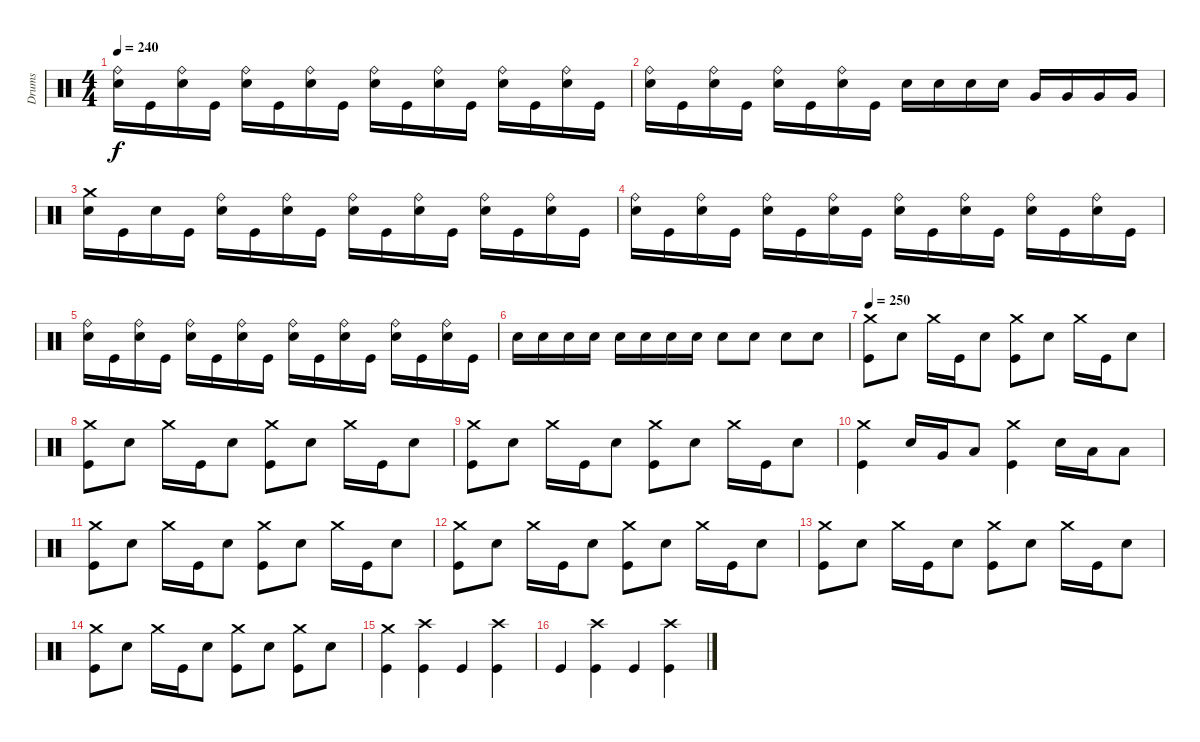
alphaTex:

\track ("Drums" "Drums") {instrument percussion}
\staff {score}
\articulation defaults
\ts (4 4)
\tempo 240
\clef neutral
\ks c
("Ride (bell)" "Electric Snare (hit)").16{dy f} "Kick (hit)".16 ("Ride (bell)" "Electric Snare (hit)").16 "Kick (hit)".16 ("Ride (bell)" "Electric Snare (hit)").16 "Kick (hit)".16 ("Ride (bell)" "Electric Snare (hit)").16 "Kick (hit)".16 ("Ride (bell)" "Electric Snare (hit)").16 "Kick (hit)".16 ("Ride (bell)" "Electric Snare (hit)").16 "Kick (hit)".16 ("Ride (bell)" "Electric Snare (hit)").16 "Kick (hit)".16 ("Ride (bell)" "Electric Snare (hit)").16 "Kick (hit)".16 |
("Ride (bell)" "Electric Snare (hit)").16 "Kick (hit)".16 ("Ride (bell)" "Electric Snare (hit)").16 "Kick (hit)".16 ("Ride (bell)" "Electric Snare (hit)").16 "Kick (hit)".16 ("Ride (bell)" "Electric Snare (hit)").16 "Kick (hit)".16 "Electric Snare (hit)".16 "Electric Snare (hit)".16 "Electric Snare (hit)".16 "Electric Snare (hit)".16 "Very Low Tom (hit)".16 "Very Low Tom (hit)".16 "Very Low Tom (hit)".16 "Very Low Tom (hit)".16 |
("Crash medium (hit)" "Electric Snare (hit)").16 "Kick (hit)".16 "Electric Snare (hit)".16 "Kick (hit)".16 ("Ride (bell)" "Electric Snare (hit)").16 "Kick (hit)".16 ("Ride (bell)" "Electric Snare (hit)").16 "Kick (hit)".16 ("Ride (bell)" "Electric Snare (hit)").16 "Kick (hit)".16 ("Ride (bell)" "Electric Snare (hit)").16 "Kick (hit)".16 ("Ride (bell)" "Electric Snare (hit)").16 "Kick (hit)".16 ("Ride (bell)" "Electric Snare (hit)").16 "Kick (hit)".16 |
("Ride (bell)" "Electric Snare (hit)").16 "Kick (hit)".16 ("Ride (bell)" "Electric Snare (hit)").16 "Kick (hit)".16 ("Ride (bell)" "Electric Snare (hit)").16 "Kick (hit)".16 ("Ride (bell)" "Electric Snare (hit)").16 "Kick (hit)".16 ("Ride (bell)" "Electric Snare (hit)").16 "Kick (hit)".16 ("Ride (bell)" "Electric Snare (hit)").16 "Kick (hit)".16 ("Ride (bell)" "Electric Snare (hit)").16 "Kick (hit)".16 ("Ride (bell)" "Electric Snare (hit)").16 "Kick (hit)".16 |
("Ride (bell)" "Electric Snare (hit)").16 "Kick (hit)".16 ("Ride (bell)" "Electric Snare (hit)").16 "Kick (hit)".16 ("Ride (bell)" "Electric Snare (hit)").16 "Kick (hit)".16 ("Ride (bell)" "Electric Snare (hit)").16 "Kick (hit)".16 ("Ride (bell)" "Electric Snare (hit)").16 "Kick (hit)".16 ("Ride (bell)" "Electric Snare (hit)").16 "Kick (hit)".16 ("Ride (bell)" "Electric Snare (hit)").16 "Kick (hit)".16 ("Ride (bell)" "Electric Snare (hit)").16 "Kick (hit)".16 |
"Electric Snare (hit)".16 "Electric Snare (hit)".16 "Electric Snare (hit)".16 "Electric Snare (hit)".16 "Electric Snare (hit)".16 "Electric Snare (hit)".16 "Electric Snare (hit)".16 "Electric Snare (hit)".16 "Electric Snare (hit)".8 "Electric Snare (hit)".8 "Electric Snare (hit)".8 "Electric Snare (hit)".8 |
\tempo 250
("Crash medium (hit)" "Kick (hit)").8 "Electric Snare (hit)".8 "Crash medium (hit)".16 "Kick (hit)".16 "Electric Snare (hit)".8 ("Crash medium (hit)" "Kick (hit)").8 "Electric Snare (hit)".8 "Crash medium (hit)".16 "Kick (hit)".16 "Electric Snare (hit)".8 |
("Crash medium (hit)" "Kick (hit)").8 "Electric Snare (hit)".8 "Crash medium (hit)".16 "Kick (hit)".16 "Electric Snare (hit)".8 ("Crash medium (hit)" "Kick (hit)").8 "Electric Snare (hit)".8 "Crash medium (hit)".16 "Kick (hit)".16 "Electric Snare (hit)".8 |
("Crash medium (hit)" "Kick (hit)").8 "Electric Snare (hit)".8 "Crash medium (hit)".16 "Kick (hit)".16 "Electric Snare (hit)".8 ("Crash medium (hit)" "Kick (hit)").8 "Electric Snare (hit)".8 "Crash medium (hit)".16 "Kick (hit)".16 "Electric Snare (hit)".8 |
("Crash medium (hit)" "Kick (hit)").4 "Electric Snare (hit)".16 "Very Low Tom (hit)".16 "Low Floor Tom (hit)".8 ("Crash medium (hit)" "Kick (hit)").4 "Electric Snare (hit)".16 "Low Tom (hit)".16 "Low Floor Tom (hit)".8 |
("Crash medium (hit)" "Kick (hit)").8 "Electric Snare (hit)".8 "Crash medium (hit)".16 "Kick (hit)".16 "Electric Snare (hit)".8 ("Crash medium (hit)" "Kick (hit)").8 "Electric Snare (hit)".8 "Crash medium (hit)".16 "Kick (hit)".16 "Electric Snare (hit)".8 |
("Crash medium (hit)" "Kick (hit)").8 "Electric Snare (hit)".8 "Crash medium (hit)".16 "Kick (hit)".16 "Electric Snare (hit)".8 ("Crash medium (hit)" "Kick (hit)").8 "Electric Snare (hit)".8 "Crash medium (hit)".16 "Kick (hit)".16 "Electric Snare (hit)".8 |
("Crash medium (hit)" "Kick (hit)").8 "Electric Snare (hit)".8 "Crash medium (hit)".16 "Kick (hit)".16 "Electric Snare (hit)".8 ("Crash medium (hit)" "Kick (hit)").8 "Electric Snare (hit)".8 "Crash medium (hit)".16 "Kick (hit)".16 "Electric Snare (hit)".8 |
("Crash medium (hit)" "Kick (hit)").8 "Electric Snare (hit)".8 "Crash medium (hit)".16 "Kick (hit)".16 "Electric Snare (hit)".8 ("Crash medium (hit)" "Kick (hit)").8 "Electric Snare (hit)".8 ("Crash medium (hit)" "Kick (hit)").8 "Electric Snare (hit)".8 |
("Crash medium (hit)" "Kick (hit)").4 ("Crash high (hit)" "Kick (hit)").4 "Kick (hit)".4 ("Crash high (hit)" "Kick (hit)").4 |
"Kick (hit)".4 ("Crash high (hit)" "Kick (hit)").4 "Kick (hit)".4 ("Crash high (hit)" "Kick (hit)").4
